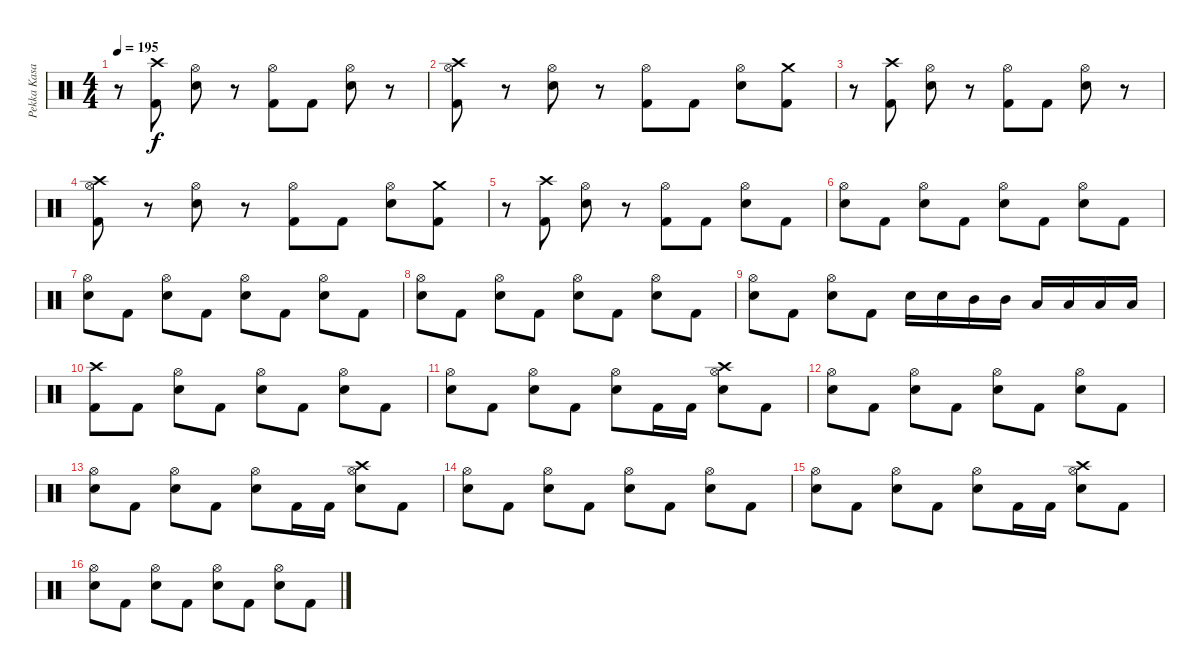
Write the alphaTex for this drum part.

\track ("Pekka Kasari" "Pekka Kasa") {instrument percussion}
\staff {score}
\articulation defaults
\ts (4 4)
\tempo 195
\clef neutral
\ks c
r.8{dy f} ("Kick (hit) 2" "Crash high (hit)").8 ("Snare (hit) 2" "Hi-Hat (open)").8 r.8 ("Kick (hit) 2" "Hi-Hat (open)").8 "Kick (hit) 2".8 ("Snare (hit) 2" "Hi-Hat (open)").8 r.8 |
("Kick (hit) 2" "Crash high (hit)" "Hi-Hat (open)").8 r.8 ("Snare (hit) 2" "Hi-Hat (open)").8 r.8 ("Kick (hit) 2" "Hi-Hat (open)").8 "Kick (hit) 2".8 ("Snare (hit) 2" "Hi-Hat (open)").8 ("Kick (hit) 2" "Crash medium (hit)").8 |
r.8 ("Kick (hit) 2" "Crash high (hit)").8 ("Snare (hit) 2" "Hi-Hat (open)").8 r.8 ("Kick (hit) 2" "Hi-Hat (open)").8 "Kick (hit) 2".8 ("Snare (hit) 2" "Hi-Hat (open)").8 r.8 |
("Kick (hit) 2" "Crash high (hit)" "Hi-Hat (open)").8 r.8 ("Snare (hit) 2" "Hi-Hat (open)").8 r.8 ("Kick (hit) 2" "Hi-Hat (open)").8 "Kick (hit) 2".8 ("Snare (hit) 2" "Hi-Hat (open)").8 ("Kick (hit) 2" "Crash medium (hit)").8 |
r.8 ("Kick (hit) 2" "Crash high (hit)").8 ("Snare (hit) 2" "Hi-Hat (open)").8 r.8 ("Kick (hit) 2" "Hi-Hat (open)").8 "Kick (hit) 2".8 ("Snare (hit) 2" "Hi-Hat (open)").8 "Kick (hit) 2".8 |
("Hi-Hat (open)" "Snare (hit) 2").8 "Kick (hit) 2".8 ("Hi-Hat (open)" "Snare (hit) 2").8 "Kick (hit) 2".8 ("Hi-Hat (open)" "Snare (hit) 2").8 "Kick (hit) 2".8 ("Hi-Hat (open)" "Snare (hit) 2").8 "Kick (hit) 2".8 |
("Hi-Hat (open)" "Snare (hit) 2").8 "Kick (hit) 2".8 ("Hi-Hat (open)" "Snare (hit) 2").8 "Kick (hit) 2".8 ("Hi-Hat (open)" "Snare (hit) 2").8 "Kick (hit) 2".8 ("Hi-Hat (open)" "Snare (hit) 2").8 "Kick (hit) 2".8 |
("Hi-Hat (open)" "Snare (hit) 2").8 "Kick (hit) 2".8 ("Hi-Hat (open)" "Snare (hit) 2").8 "Kick (hit) 2".8 ("Hi-Hat (open)" "Snare (hit) 2").8 "Kick (hit) 2".8 ("Hi-Hat (open)" "Snare (hit) 2").8 "Kick (hit) 2".8 |
("Hi-Hat (open)" "Snare (hit) 2").8 "Kick (hit) 2".8 ("Hi-Hat (open)" "Snare (hit) 2").8 "Kick (hit) 2".8 "Snare (hit) 2".16 "Snare (hit) 2".16 "Mid Tom (hit)".16 "Mid Tom (hit)".16 "Low Tom (hit)".16 "Low Tom (hit)".16 "Low Floor Tom (hit)".16 "Low Floor Tom (hit)".16 |
("Kick (hit) 2" "Crash high (hit)").8 "Kick (hit) 2".8 ("Hi-Hat (open)" "Snare (hit) 2").8 "Kick (hit) 2".8 ("Hi-Hat (open)" "Snare (hit) 2").8 "Kick (hit) 2".8 ("Hi-Hat (open)" "Snare (hit) 2").8 "Kick (hit) 2".8 |
("Hi-Hat (open)" "Snare (hit) 2").8 "Kick (hit) 2".8 ("Hi-Hat (open)" "Snare (hit) 2").8 "Kick (hit) 2".8 ("Hi-Hat (open)" "Snare (hit) 2").8 "Kick (hit) 2".16 "Kick (hit) 2".16 ("Hi-Hat (open)" "Snare (hit) 2" "Crash high (hit)").8 "Kick (hit) 2".8 |
("Hi-Hat (open)" "Snare (hit) 2").8 "Kick (hit) 2".8 ("Hi-Hat (open)" "Snare (hit) 2").8 "Kick (hit) 2".8 ("Hi-Hat (open)" "Snare (hit) 2").8 "Kick (hit) 2".8 ("Hi-Hat (open)" "Snare (hit) 2").8 "Kick (hit) 2".8 |
("Hi-Hat (open)" "Snare (hit) 2").8 "Kick (hit) 2".8 ("Hi-Hat (open)" "Snare (hit) 2").8 "Kick (hit) 2".8 ("Hi-Hat (open)" "Snare (hit) 2").8 "Kick (hit) 2".16 "Kick (hit) 2".16 ("Hi-Hat (open)" "Snare (hit) 2" "Crash high (hit)").8 "Kick (hit) 2".8 |
("Hi-Hat (open)" "Snare (hit) 2").8 "Kick (hit) 2".8 ("Hi-Hat (open)" "Snare (hit) 2").8 "Kick (hit) 2".8 ("Hi-Hat (open)" "Snare (hit) 2").8 "Kick (hit) 2".8 ("Hi-Hat (open)" "Snare (hit) 2").8 "Kick (hit) 2".8 |
("Hi-Hat (open)" "Snare (hit) 2").8 "Kick (hit) 2".8 ("Hi-Hat (open)" "Snare (hit) 2").8 "Kick (hit) 2".8 ("Hi-Hat (open)" "Snare (hit) 2").8 "Kick (hit) 2".16 "Kick (hit) 2".16 ("Hi-Hat (open)" "Snare (hit) 2" "Crash high (hit)").8 "Kick (hit) 2".8 |
("Hi-Hat (open)" "Snare (hit) 2").8 "Kick (hit) 2".8 ("Hi-Hat (open)" "Snare (hit) 2").8 "Kick (hit) 2".8 ("Hi-Hat (open)" "Snare (hit) 2").8 "Kick (hit) 2".8 ("Hi-Hat (open)" "Snare (hit) 2").8 "Kick (hit) 2".8
